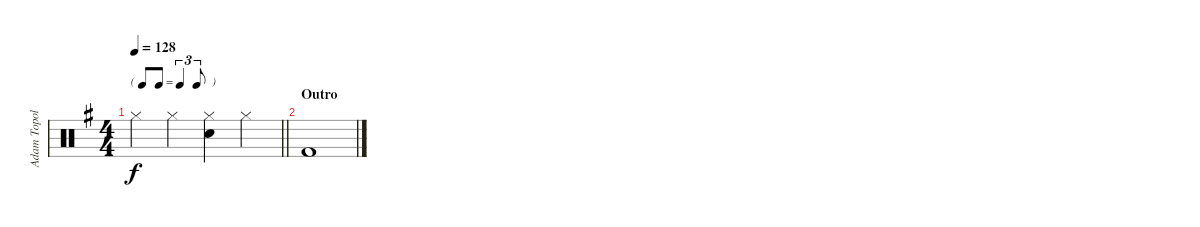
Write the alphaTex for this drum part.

\track ("Adam Topol" "Adam Topol") {instrument percussion}
\staff {score}
\articulation defaults
\ts (4 4)
\tf triplet8th
\tempo 128
\clef neutral
\barLineRight lightlight
\ks g "Hi-Hat (closed)".4{dy f} "Hi-Hat (closed)".4
("Hi-Hat (closed)" "Snare (hit) 2").4 "Hi-Hat (closed)".4 |
\section ("" "Outro")
"Kick (hit) 2".1
